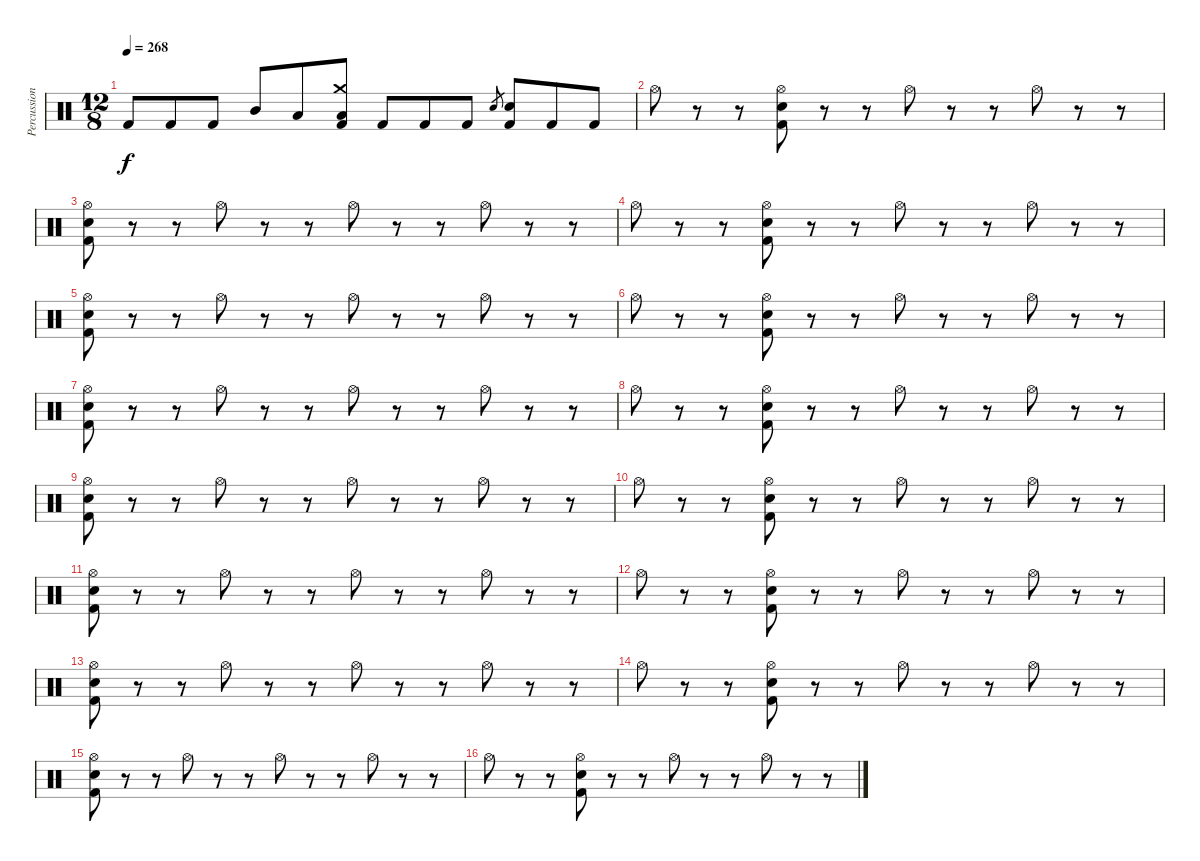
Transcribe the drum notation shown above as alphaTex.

\track ("Percussion" "Percussion") {instrument percussion}
\staff {score}
\articulation defaults
\ts (12 8)
\tempo 268
\clef neutral
\ks c "Kick (hit) 2".8{dy f} "Kick (hit) 2".8 "Kick (hit) 2".8 "Mid Tom (hit)".8 "Low Tom (hit)".8
("Crash medium (hit)" "Low Floor Tom (hit)" "Kick (hit) 2").8 "Kick (hit) 2".8 "Kick (hit) 2".8 "Kick (hit) 2".8 "Electric Snare (hit)".8{gr} ("Electric Snare (hit)" "Kick (hit) 2").8 "Kick (hit) 2".8 "Kick (hit) 2".8 |
"Hi-Hat (open)".8 r.8 r.8 ("Hi-Hat (open)" "Electric Snare (hit)" "Kick (hit) 2").8 r.8 r.8 "Hi-Hat (open)".8 r.8 r.8 "Hi-Hat (open)".8 r.8 r.8 |
("Hi-Hat (open)" "Electric Snare (hit)" "Kick (hit) 2").8 r.8 r.8 "Hi-Hat (open)".8 r.8 r.8 "Hi-Hat (open)".8 r.8 r.8 "Hi-Hat (open)".8 r.8 r.8 |
"Hi-Hat (open)".8 r.8 r.8 ("Hi-Hat (open)" "Electric Snare (hit)" "Kick (hit) 2").8 r.8 r.8 "Hi-Hat (open)".8 r.8 r.8 "Hi-Hat (open)".8 r.8 r.8 |
("Hi-Hat (open)" "Electric Snare (hit)" "Kick (hit) 2").8 r.8 r.8 "Hi-Hat (open)".8 r.8 r.8 "Hi-Hat (open)".8 r.8 r.8 "Hi-Hat (open)".8 r.8 r.8 |
"Hi-Hat (open)".8 r.8 r.8 ("Hi-Hat (open)" "Electric Snare (hit)" "Kick (hit) 2").8 r.8 r.8 "Hi-Hat (open)".8 r.8 r.8 "Hi-Hat (open)".8 r.8 r.8 |
("Hi-Hat (open)" "Electric Snare (hit)" "Kick (hit) 2").8 r.8 r.8 "Hi-Hat (open)".8 r.8 r.8 "Hi-Hat (open)".8 r.8 r.8 "Hi-Hat (open)".8 r.8 r.8 |
"Hi-Hat (open)".8 r.8 r.8 ("Hi-Hat (open)" "Electric Snare (hit)" "Kick (hit) 2").8 r.8 r.8 "Hi-Hat (open)".8 r.8 r.8 "Hi-Hat (open)".8 r.8 r.8 |
("Hi-Hat (open)" "Electric Snare (hit)" "Kick (hit) 2").8 r.8 r.8 "Hi-Hat (open)".8 r.8 r.8 "Hi-Hat (open)".8 r.8 r.8 "Hi-Hat (open)".8 r.8 r.8 |
"Hi-Hat (open)".8 r.8 r.8 ("Hi-Hat (open)" "Electric Snare (hit)" "Kick (hit) 2").8 r.8 r.8 "Hi-Hat (open)".8 r.8 r.8 "Hi-Hat (open)".8 r.8 r.8 |
("Hi-Hat (open)" "Electric Snare (hit)" "Kick (hit) 2").8 r.8 r.8 "Hi-Hat (open)".8 r.8 r.8 "Hi-Hat (open)".8 r.8 r.8 "Hi-Hat (open)".8 r.8 r.8 |
"Hi-Hat (open)".8 r.8 r.8 ("Hi-Hat (open)" "Electric Snare (hit)" "Kick (hit) 2").8 r.8 r.8 "Hi-Hat (open)".8 r.8 r.8 "Hi-Hat (open)".8 r.8 r.8 |
("Hi-Hat (open)" "Electric Snare (hit)" "Kick (hit) 2").8 r.8 r.8 "Hi-Hat (open)".8 r.8 r.8 "Hi-Hat (open)".8 r.8 r.8 "Hi-Hat (open)".8 r.8 r.8 |
"Hi-Hat (open)".8 r.8 r.8 ("Hi-Hat (open)" "Electric Snare (hit)" "Kick (hit) 2").8 r.8 r.8 "Hi-Hat (open)".8 r.8 r.8 "Hi-Hat (open)".8 r.8 r.8 |
("Hi-Hat (open)" "Electric Snare (hit)" "Kick (hit) 2").8 r.8 r.8 "Hi-Hat (open)".8 r.8 r.8 "Hi-Hat (open)".8 r.8 r.8 "Hi-Hat (open)".8 r.8 r.8 |
"Hi-Hat (open)".8 r.8 r.8 ("Hi-Hat (open)" "Electric Snare (hit)" "Kick (hit) 2").8 r.8 r.8 "Hi-Hat (open)".8 r.8 r.8 "Hi-Hat (open)".8 r.8 r.8
